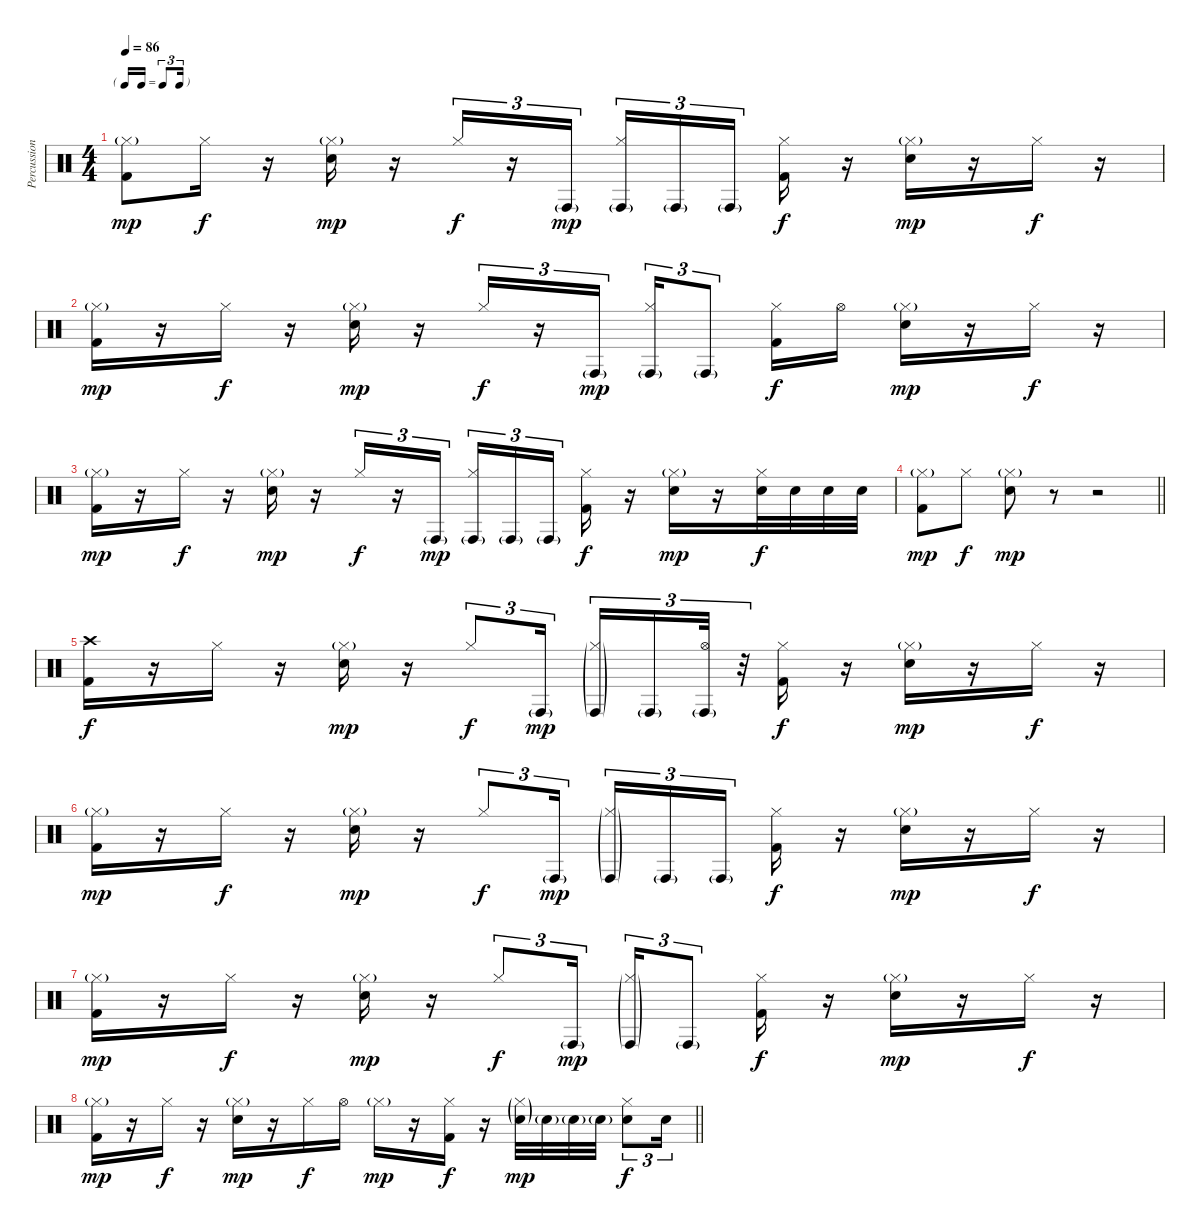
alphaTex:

\track ("Percussion" "Percussion") {instrument percussion}
\staff {score}
\articulation defaults
\ts (4 4)
\tf triplet16th
\tempo 86
\clef neutral
\ks c
("Hi-Hat (closed)"{g} "Kick (hit) 2").8{dy mp} "Hi-Hat (closed)".16{dy f} r.16 ("Hi-Hat (closed)"{g} "Electric Snare (hit)").16{dy mp} r.16 "Hi-Hat (closed)".16{tu (3 2) dy f} r.16{tu (3 2)} "Conga high (hit)"{g}.16{tu (3 2) dy mp} ("Conga high (hit)"{g} "Hi-Hat (closed)").16{tu (3 2)} "Conga high (hit)"{g}.16{tu (3 2)} "Conga high (hit)"{g}.16{tu (3 2) beam splitsecondary} ("Hi-Hat (closed)" "Kick (hit) 2").16{dy f} r.16 ("Hi-Hat (closed)"{g} "Electric Snare (hit)").16{dy mp} r.16 "Hi-Hat (closed)".16{dy f} r.16 |
("Hi-Hat (closed)"{g} "Kick (hit) 2").16{dy mp} r.16 "Hi-Hat (closed)".16{dy f} r.16 ("Hi-Hat (closed)"{g} "Electric Snare (hit)").16{dy mp} r.16 "Hi-Hat (closed)".16{tu (3 2) dy f} r.16{tu (3 2)} "Conga high (hit)"{g}.16{tu (3 2) dy mp} ("Conga high (hit)"{g} "Hi-Hat (closed)").16{tu (3 2)} "Conga high (hit)"{g}.8{tu (3 2)} ("Hi-Hat (closed)" "Kick (hit) 2").16{dy f} "Hi-Hat (open)".16 ("Hi-Hat (closed)"{g} "Electric Snare (hit)").16{dy mp} r.16 "Hi-Hat (closed)".16{dy f} r.16 |
("Hi-Hat (closed)"{g} "Kick (hit) 2").16{dy mp} r.16 "Hi-Hat (closed)".16{dy f} r.16 ("Hi-Hat (closed)"{g} "Electric Snare (hit)").16{dy mp} r.16 "Hi-Hat (closed)".16{tu (3 2) dy f} r.16{tu (3 2)} "Conga high (hit)"{g}.16{tu (3 2) dy mp} ("Conga high (hit)"{g} "Hi-Hat (closed)").16{tu (3 2)} "Conga high (hit)"{g}.16{tu (3 2)} "Conga high (hit)"{g}.16{tu (3 2) beam splitsecondary} ("Hi-Hat (closed)" "Kick (hit) 2").16{dy f} r.16 ("Hi-Hat (closed)"{g} "Electric Snare (hit)").16{dy mp} r.16 ("Hi-Hat (closed)" "Electric Snare (hit)").32{dy f} "Electric Snare (hit)".32 "Electric Snare (hit)".32 "Electric Snare (hit)".32 |
\barLineRight lightlight
("Hi-Hat (closed)"{g} "Kick (hit) 2").8{dy mp} "Hi-Hat (closed)".8{dy f} ("Hi-Hat (closed)"{g} "Electric Snare (hit)").8{dy mp} r.8 r.2 |
("Crash high (hit)" "Kick (hit) 2").16{dy f} r.16 "Hi-Hat (closed)".16 r.16 ("Hi-Hat (closed)"{g} "Electric Snare (hit)").16{dy mp} r.16 "Hi-Hat (closed)".8{tu (3 2) dy f} "Conga high (hit)"{g}.16{tu (3 2) dy mp} ("Conga high (hit)"{g} "Hi-Hat (closed)"{g}).16{tu (3 2)} "Conga high (hit)"{g}.16{tu (3 2)} ("Conga high (hit)"{g} "Hi-Hat (open)").32{tu (3 2)} r.32{tu (3 2)} ("Hi-Hat (closed)" "Kick (hit) 2").16{dy f} r.16 ("Hi-Hat (closed)"{g} "Electric Snare (hit)").16{dy mp} r.16 "Hi-Hat (closed)".16{dy f} r.16 |
("Hi-Hat (closed)"{g} "Kick (hit) 2").16{dy mp} r.16 "Hi-Hat (closed)".16{dy f} r.16 ("Hi-Hat (closed)"{g} "Electric Snare (hit)").16{dy mp} r.16 "Hi-Hat (closed)".8{tu (3 2) dy f} "Conga high (hit)"{g}.16{tu (3 2) dy mp} ("Conga high (hit)"{g} "Hi-Hat (closed)"{g}).16{tu (3 2)} "Conga high (hit)"{g}.16{tu (3 2)} "Conga high (hit)"{g}.16{tu (3 2) beam splitsecondary} ("Hi-Hat (closed)" "Kick (hit) 2").16{dy f} r.16 ("Hi-Hat (closed)"{g} "Electric Snare (hit)").16{dy mp} r.16 "Hi-Hat (closed)".16{dy f} r.16 |
("Hi-Hat (closed)"{g} "Kick (hit) 2").16{dy mp} r.16 "Hi-Hat (closed)".16{dy f} r.16 ("Hi-Hat (closed)"{g} "Electric Snare (hit)").16{dy mp} r.16 "Hi-Hat (closed)".8{tu (3 2) dy f} "Conga high (hit)"{g}.16{tu (3 2) dy mp} ("Conga high (hit)"{g} "Hi-Hat (closed)"{g}).16{tu (3 2)} "Conga high (hit)"{g}.8{tu (3 2)} ("Hi-Hat (closed)" "Kick (hit) 2").16{dy f} r.16 ("Hi-Hat (closed)"{g} "Electric Snare (hit)").16{dy mp} r.16 "Hi-Hat (closed)".16{dy f} r.16 |
\barLineRight lightlight
("Hi-Hat (closed)"{g} "Kick (hit) 2").16{dy mp} r.16 "Hi-Hat (closed)".16{dy f} r.16 ("Hi-Hat (closed)"{g} "Electric Snare (hit)").16{dy mp} r.16 "Hi-Hat (closed)".16{dy f} "Hi-Hat (open)".16 "Hi-Hat (closed)"{g}.16{dy mp} r.16 ("Hi-Hat (closed)" "Kick (hit) 2").16{dy f} r.16 ("Hi-Hat (closed)"{g} "Electric Snare (hit)"{g}).32{dy mp} "Electric Snare (hit)"{g}.32 "Electric Snare (hit)"{g}.32 "Electric Snare (hit)"{g}.32 ("Hi-Hat (closed)" "Electric Snare (hit)").8{tu (3 2) dy f} "Electric Snare (hit)".16{tu (3 2)}
